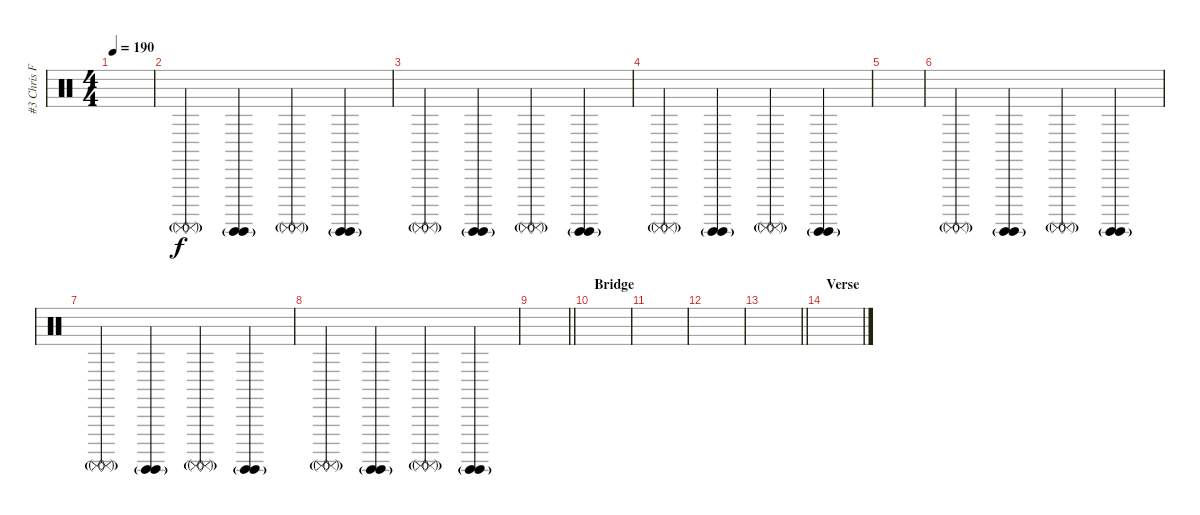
\track ("#3 Chris Fehn" "#3 Chris F") {instrument percussion}
\staff {score}
\articulation defaults
\ts (4 4)
\tempo 190
\clef neutral
\ks c
|
("Surdo (mute)"{g} "Surdo (mute)"{g}).4 ("Surdo (hit)"{g} "Surdo (hit)"{g}).4 ("Surdo (mute)"{g} "Surdo (mute)"{g}).4 ("Surdo (hit)"{g} "Surdo (hit)"{g}).4 |
("Surdo (mute)"{g} "Surdo (mute)"{g}).4 ("Surdo (hit)"{g} "Surdo (hit)"{g}).4 ("Surdo (mute)"{g} "Surdo (mute)"{g}).4 ("Surdo (hit)"{g} "Surdo (hit)"{g}).4 |
("Surdo (mute)"{g} "Surdo (mute)"{g}).4 ("Surdo (hit)"{g} "Surdo (hit)"{g}).4 ("Surdo (mute)"{g} "Surdo (mute)"{g}).4 ("Surdo (hit)"{g} "Surdo (hit)"{g}).4 |
|
("Surdo (mute)"{g} "Surdo (mute)"{g}).4 ("Surdo (hit)"{g} "Surdo (hit)"{g}).4 ("Surdo (mute)"{g} "Surdo (mute)"{g}).4 ("Surdo (hit)"{g} "Surdo (hit)"{g}).4 |
("Surdo (mute)"{g} "Surdo (mute)"{g}).4 ("Surdo (hit)"{g} "Surdo (hit)"{g}).4 ("Surdo (mute)"{g} "Surdo (mute)"{g}).4 ("Surdo (hit)"{g} "Surdo (hit)"{g}).4 |
("Surdo (mute)"{g} "Surdo (mute)"{g}).4 ("Surdo (hit)"{g} "Surdo (hit)"{g}).4 ("Surdo (mute)"{g} "Surdo (mute)"{g}).4 ("Surdo (hit)"{g} "Surdo (hit)"{g}).4 |
\barLineRight lightlight
|
\section ("" "Bridge")
|
|
|
\barLineRight lightlight
|
\section ("" "Verse")
